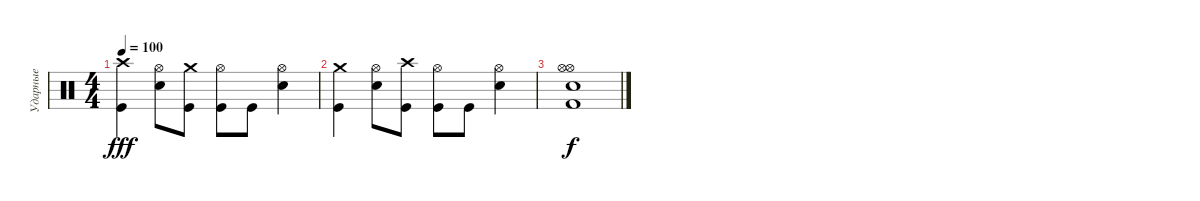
\track ("Ударные" "Ударные") {instrument percussion}
\staff {score}
\articulation defaults
\ts (4 4)
\tempo 100
\clef neutral
\ks c
("Crash high (hit)" "Kick (hit)").4{dy fff} ("Hi-Hat (open)" "Electric Snare (hit)").8 ("Crash medium (hit)" "Kick (hit)").8 ("Hi-Hat (open)" "Kick (hit)").8 "Kick (hit)".8 ("Hi-Hat (open)" "Electric Snare (hit)").4 |
("Crash medium (hit)" "Kick (hit)").4 ("Hi-Hat (open)" "Electric Snare (hit)").8 ("Crash high (hit)" "Kick (hit)").8 ("Hi-Hat (open)" "Kick (hit)").8 "Kick (hit)".8 ("Hi-Hat (open)" "Electric Snare (hit)").4 |
("Hi-Hat (open)" "Hi-Hat (open)" "Electric Snare (hit)" "Kick (hit) 2").1{dy f}
